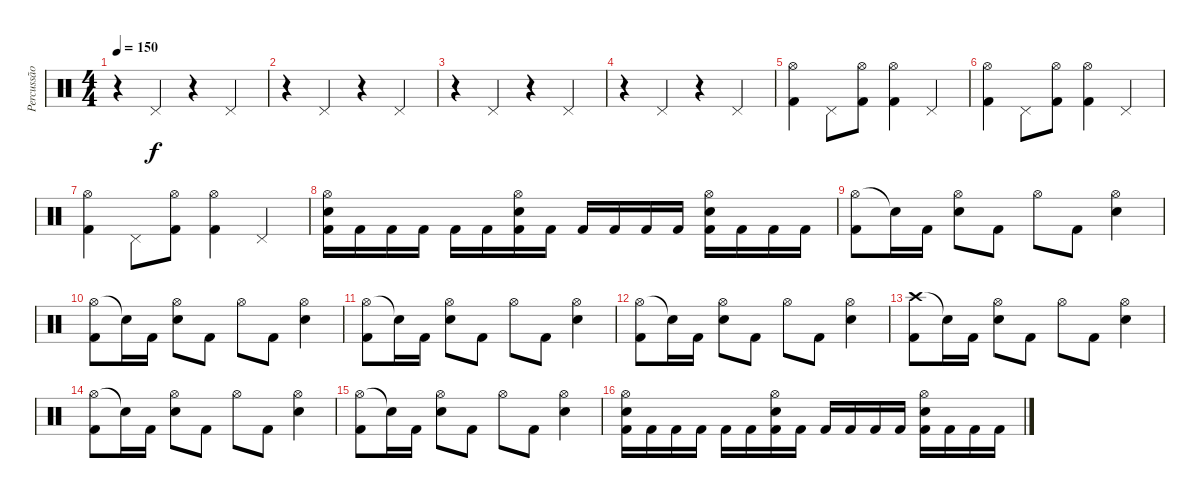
\track ("Percussão" "Percussão") {instrument percussion}
\staff {score}
\articulation defaults
\ts (4 4)
\tempo 150
\clef neutral
\ks c
r.4{dy f} "Pedal Hi-Hat (hit)".4 r.4 "Pedal Hi-Hat (hit)".4 |
r.4 "Pedal Hi-Hat (hit)".4 r.4 "Pedal Hi-Hat (hit)".4 |
r.4 "Pedal Hi-Hat (hit)".4 r.4 "Pedal Hi-Hat (hit)".4 |
r.4 "Pedal Hi-Hat (hit)".4 r.4 "Pedal Hi-Hat (hit)".4 |
("Hi-Hat (open)" "Kick (hit) 2").4 "Pedal Hi-Hat (hit)".8 ("Hi-Hat (open)" "Kick (hit) 2").8 ("Hi-Hat (open)" "Kick (hit) 2").4 "Pedal Hi-Hat (hit)".4 |
("Hi-Hat (open)" "Kick (hit) 2").4 "Pedal Hi-Hat (hit)".8 ("Hi-Hat (open)" "Kick (hit) 2").8 ("Hi-Hat (open)" "Kick (hit) 2").4 "Pedal Hi-Hat (hit)".4 |
("Hi-Hat (open)" "Kick (hit) 2").4 "Pedal Hi-Hat (hit)".8 ("Hi-Hat (open)" "Kick (hit) 2").8 ("Hi-Hat (open)" "Kick (hit) 2").4 "Pedal Hi-Hat (hit)".4 |
("Hi-Hat (open)" "Electric Snare (hit)" "Kick (hit) 2").16 "Kick (hit) 2".16 "Kick (hit) 2".16 "Kick (hit) 2".16 "Kick (hit) 2".16 "Kick (hit) 2".16 ("Hi-Hat (open)" "Electric Snare (hit)" "Kick (hit) 2").16 "Kick (hit) 2".16 "Kick (hit) 2".16 "Kick (hit) 2".16 "Kick (hit) 2".16 "Kick (hit) 2".16 ("Hi-Hat (open)" "Electric Snare (hit)" "Kick (hit) 2").16 "Kick (hit) 2".16 "Kick (hit) 2".16 "Kick (hit) 2".16 |
("Hi-Hat (open)" "Kick (hit) 2").8 "Snare (hit)"{t}.16 "Kick (hit) 2".16 ("Hi-Hat (open)" "Electric Snare (hit)").8 "Kick (hit) 2".8 "Hi-Hat (open)".8 "Kick (hit) 2".8 ("Hi-Hat (open)" "Electric Snare (hit)").4 |
("Hi-Hat (open)" "Kick (hit) 2").8 "Snare (hit)"{t}.16 "Kick (hit) 2".16 ("Hi-Hat (open)" "Electric Snare (hit)").8 "Kick (hit) 2".8 "Hi-Hat (open)".8 "Kick (hit) 2".8 ("Hi-Hat (open)" "Electric Snare (hit)").4 |
("Hi-Hat (open)" "Kick (hit) 2").8 "Snare (hit)"{t}.16 "Kick (hit) 2".16 ("Hi-Hat (open)" "Electric Snare (hit)").8 "Kick (hit) 2".8 "Hi-Hat (open)".8 "Kick (hit) 2".8 ("Hi-Hat (open)" "Electric Snare (hit)").4 |
("Hi-Hat (open)" "Kick (hit) 2").8 "Snare (hit)"{t}.16 "Kick (hit) 2".16 ("Hi-Hat (open)" "Electric Snare (hit)").8 "Kick (hit) 2".8 "Hi-Hat (open)".8 "Kick (hit) 2".8 ("Hi-Hat (open)" "Electric Snare (hit)").4 |
("Crash high (hit)" "Kick (hit) 2").8 "Snare (hit)"{t}.16 "Kick (hit) 2".16 ("Hi-Hat (open)" "Electric Snare (hit)").8 "Kick (hit) 2".8 "Hi-Hat (open)".8 "Kick (hit) 2".8 ("Hi-Hat (open)" "Electric Snare (hit)").4 |
("Hi-Hat (open)" "Kick (hit) 2").8 "Snare (hit)"{t}.16 "Kick (hit) 2".16 ("Hi-Hat (open)" "Electric Snare (hit)").8 "Kick (hit) 2".8 "Hi-Hat (open)".8 "Kick (hit) 2".8 ("Hi-Hat (open)" "Electric Snare (hit)").4 |
("Hi-Hat (open)" "Kick (hit) 2").8 "Snare (hit)"{t}.16 "Kick (hit) 2".16 ("Hi-Hat (open)" "Electric Snare (hit)").8 "Kick (hit) 2".8 "Hi-Hat (open)".8 "Kick (hit) 2".8 ("Hi-Hat (open)" "Electric Snare (hit)").4 |
("Hi-Hat (open)" "Electric Snare (hit)" "Kick (hit) 2").16 "Kick (hit) 2".16 "Kick (hit) 2".16 "Kick (hit) 2".16 "Kick (hit) 2".16 "Kick (hit) 2".16 ("Hi-Hat (open)" "Electric Snare (hit)" "Kick (hit) 2").16 "Kick (hit) 2".16 "Kick (hit) 2".16 "Kick (hit) 2".16 "Kick (hit) 2".16 "Kick (hit) 2".16 ("Hi-Hat (open)" "Electric Snare (hit)" "Kick (hit) 2").16 "Kick (hit) 2".16 "Kick (hit) 2".16 "Kick (hit) 2".16
